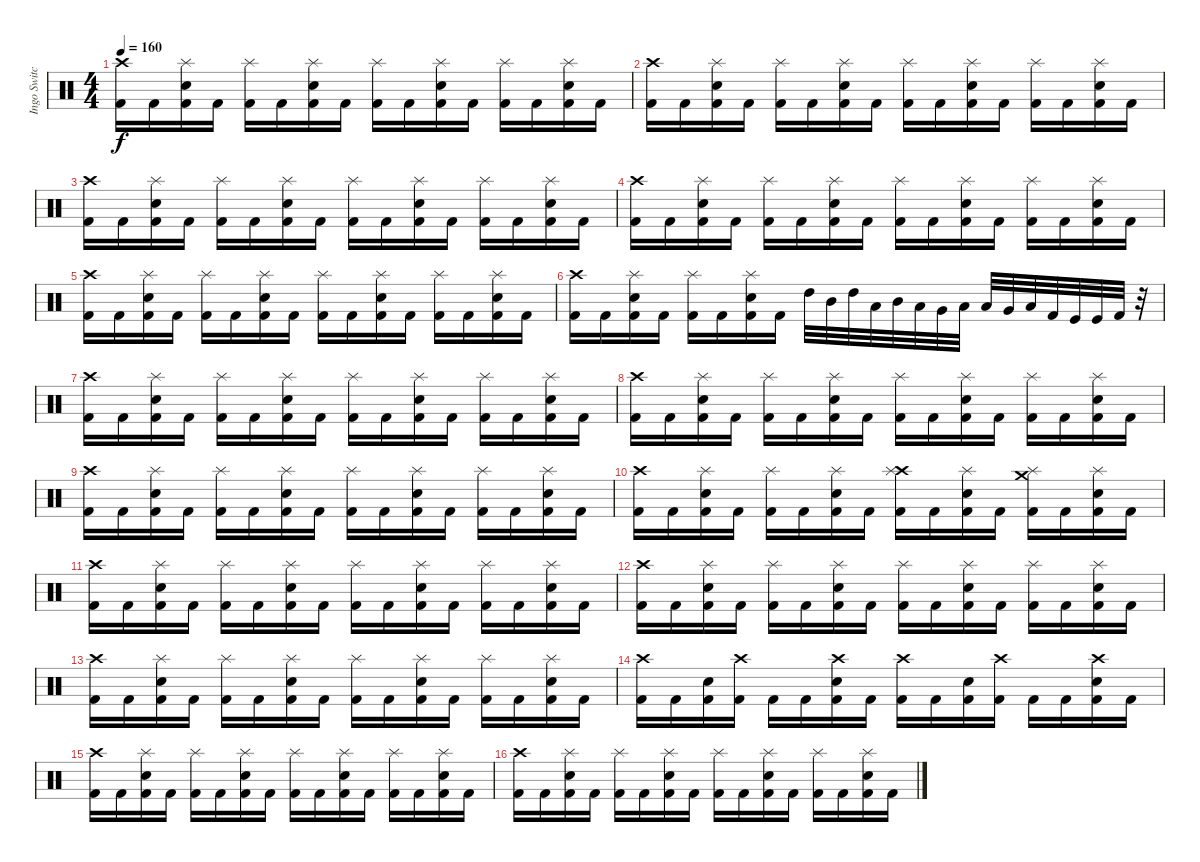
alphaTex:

\track ("Ingo Switchenberg" "Ingo Switc") {instrument percussion}
\staff {score}
\articulation defaults
\ts (4 4)
\tempo 160
\clef neutral
\ks c
("Crash high (hit)" "Kick (hit) 2").16{dy f} "Kick (hit) 2".16 ("Snare (hit) 2" "Kick (hit) 2" "Splash (hit)").16 "Kick (hit) 2".16 ("Kick (hit) 2" "Splash (hit)").16 "Kick (hit) 2".16 ("Snare (hit) 2" "Kick (hit) 2" "Splash (hit)").16 "Kick (hit) 2".16 ("Kick (hit) 2" "Splash (hit)").16 "Kick (hit) 2".16 ("Snare (hit) 2" "Kick (hit) 2" "Splash (hit)").16 "Kick (hit) 2".16 ("Kick (hit) 2" "Splash (hit)").16 "Kick (hit) 2".16 ("Snare (hit) 2" "Kick (hit) 2" "Splash (hit)").16 "Kick (hit) 2".16 |
("Crash high (hit)" "Kick (hit) 2").16 "Kick (hit) 2".16 ("Snare (hit) 2" "Kick (hit) 2" "Splash (hit)").16 "Kick (hit) 2".16 ("Kick (hit) 2" "Splash (hit)").16 "Kick (hit) 2".16 ("Snare (hit) 2" "Kick (hit) 2" "Splash (hit)").16 "Kick (hit) 2".16 ("Kick (hit) 2" "Splash (hit)").16 "Kick (hit) 2".16 ("Snare (hit) 2" "Kick (hit) 2" "Splash (hit)").16 "Kick (hit) 2".16 ("Kick (hit) 2" "Splash (hit)").16 "Kick (hit) 2".16 ("Snare (hit) 2" "Kick (hit) 2" "Splash (hit)").16 "Kick (hit) 2".16 |
("Crash high (hit)" "Kick (hit) 2").16 "Kick (hit) 2".16 ("Snare (hit) 2" "Kick (hit) 2" "Splash (hit)").16 "Kick (hit) 2".16 ("Kick (hit) 2" "Splash (hit)").16 "Kick (hit) 2".16 ("Snare (hit) 2" "Kick (hit) 2" "Splash (hit)").16 "Kick (hit) 2".16 ("Kick (hit) 2" "Splash (hit)").16 "Kick (hit) 2".16 ("Snare (hit) 2" "Kick (hit) 2" "Splash (hit)").16 "Kick (hit) 2".16 ("Kick (hit) 2" "Splash (hit)").16 "Kick (hit) 2".16 ("Snare (hit) 2" "Kick (hit) 2" "Splash (hit)").16 "Kick (hit) 2".16 |
("Crash high (hit)" "Kick (hit) 2").16 "Kick (hit) 2".16 ("Snare (hit) 2" "Kick (hit) 2" "Splash (hit)").16 "Kick (hit) 2".16 ("Kick (hit) 2" "Splash (hit)").16 "Kick (hit) 2".16 ("Snare (hit) 2" "Kick (hit) 2" "Splash (hit)").16 "Kick (hit) 2".16 ("Kick (hit) 2" "Splash (hit)").16 "Kick (hit) 2".16 ("Snare (hit) 2" "Kick (hit) 2" "Splash (hit)").16 "Kick (hit) 2".16 ("Kick (hit) 2" "Splash (hit)").16 "Kick (hit) 2".16 ("Snare (hit) 2" "Kick (hit) 2" "Splash (hit)").16 "Kick (hit) 2".16 |
("Crash high (hit)" "Kick (hit) 2").16 "Kick (hit) 2".16 ("Snare (hit) 2" "Kick (hit) 2" "Splash (hit)").16 "Kick (hit) 2".16 ("Kick (hit) 2" "Splash (hit)").16 "Kick (hit) 2".16 ("Snare (hit) 2" "Kick (hit) 2" "Splash (hit)").16 "Kick (hit) 2".16 ("Kick (hit) 2" "Splash (hit)").16 "Kick (hit) 2".16 ("Snare (hit) 2" "Kick (hit) 2" "Splash (hit)").16 "Kick (hit) 2".16 ("Kick (hit) 2" "Splash (hit)").16 "Kick (hit) 2".16 ("Snare (hit) 2" "Kick (hit) 2" "Splash (hit)").16 "Kick (hit) 2".16 |
("Kick (hit) 2" "Crash high (hit)").16 "Kick (hit) 2".16 ("Kick (hit) 2" "Snare (hit) 2" "Splash (hit)").16 "Kick (hit) 2".16 ("Kick (hit) 2" "Splash (hit)").16 "Kick (hit) 2".16 ("Kick (hit) 2" "Snare (hit) 2" "Splash (hit)").16 "Kick (hit) 2".16 "High Tom (hit)".32 "Mid Tom (hit)".32 "High Tom (hit)".32 "Low Tom (hit)".32 "Mid Tom (hit)".32 "Low Tom (hit)".32 "Very Low Tom (hit)".32 "Low Tom (hit)".32 "Low Floor Tom (hit)".32 "Very Low Tom (hit)".32 "Low Tom (hit)".32 "Kick (hit) 2".32 "Kick (hit)".32 "Kick (hit)".32 "Kick (hit) 2".32 r.32 |
("Crash high (hit)" "Kick (hit) 2").16 "Kick (hit) 2".16 ("Snare (hit) 2" "Kick (hit) 2" "Splash (hit)").16 "Kick (hit) 2".16 ("Kick (hit) 2" "Splash (hit)").16 "Kick (hit) 2".16 ("Snare (hit) 2" "Kick (hit) 2" "Splash (hit)").16 "Kick (hit) 2".16 ("Kick (hit) 2" "Splash (hit)").16 "Kick (hit) 2".16 ("Snare (hit) 2" "Kick (hit) 2" "Splash (hit)").16 "Kick (hit) 2".16 ("Kick (hit) 2" "Splash (hit)").16 "Kick (hit) 2".16 ("Snare (hit) 2" "Kick (hit) 2" "Splash (hit)").16 "Kick (hit) 2".16 |
("Crash high (hit)" "Kick (hit) 2").16 "Kick (hit) 2".16 ("Snare (hit) 2" "Kick (hit) 2" "Splash (hit)").16 "Kick (hit) 2".16 ("Kick (hit) 2" "Splash (hit)").16 "Kick (hit) 2".16 ("Snare (hit) 2" "Kick (hit) 2" "Splash (hit)").16 "Kick (hit) 2".16 ("Kick (hit) 2" "Splash (hit)").16 "Kick (hit) 2".16 ("Snare (hit) 2" "Kick (hit) 2" "Splash (hit)").16 "Kick (hit) 2".16 ("Kick (hit) 2" "Splash (hit)").16 "Kick (hit) 2".16 ("Snare (hit) 2" "Kick (hit) 2" "Splash (hit)").16 "Kick (hit) 2".16 |
("Crash high (hit)" "Kick (hit) 2").16 "Kick (hit) 2".16 ("Snare (hit) 2" "Kick (hit) 2" "Splash (hit)").16 "Kick (hit) 2".16 ("Kick (hit) 2" "Splash (hit)").16 "Kick (hit) 2".16 ("Snare (hit) 2" "Kick (hit) 2" "Splash (hit)").16 "Kick (hit) 2".16 ("Kick (hit) 2" "Splash (hit)").16 "Kick (hit) 2".16 ("Snare (hit) 2" "Kick (hit) 2" "Splash (hit)").16 "Kick (hit) 2".16 ("Kick (hit) 2" "Splash (hit)").16 "Kick (hit) 2".16 ("Snare (hit) 2" "Kick (hit) 2" "Splash (hit)").16 "Kick (hit) 2".16 |
("Crash high (hit)" "Kick (hit) 2").16 "Kick (hit) 2".16 ("Snare (hit) 2" "Kick (hit) 2" "Splash (hit)").16 "Kick (hit) 2".16 ("Kick (hit) 2" "Splash (hit)").16 "Kick (hit) 2".16 ("Snare (hit) 2" "Kick (hit) 2" "Splash (hit)").16 "Kick (hit) 2".16 ("Crash high (hit)" "Kick (hit) 2" "Splash (hit)").16 "Kick (hit) 2".16 ("Snare (hit) 2" "Kick (hit) 2" "Splash (hit)").16 "Kick (hit) 2".16 ("Crash medium (hit)" "Kick (hit) 2" "Splash (hit)").16 "Kick (hit) 2".16 ("Snare (hit) 2" "Kick (hit) 2" "Splash (hit)").16 "Kick (hit) 2".16 |
("Crash high (hit)" "Kick (hit) 2").16 "Kick (hit) 2".16 ("Snare (hit) 2" "Kick (hit) 2" "Splash (hit)").16 "Kick (hit) 2".16 ("Kick (hit) 2" "Splash (hit)").16 "Kick (hit) 2".16 ("Snare (hit) 2" "Kick (hit) 2" "Splash (hit)").16 "Kick (hit) 2".16 ("Kick (hit) 2" "Splash (hit)").16 "Kick (hit) 2".16 ("Snare (hit) 2" "Kick (hit) 2" "Splash (hit)").16 "Kick (hit) 2".16 ("Kick (hit) 2" "Splash (hit)").16 "Kick (hit) 2".16 ("Snare (hit) 2" "Kick (hit) 2" "Splash (hit)").16 "Kick (hit) 2".16 |
("Crash high (hit)" "Kick (hit) 2").16 "Kick (hit) 2".16 ("Snare (hit) 2" "Kick (hit) 2" "Splash (hit)").16 "Kick (hit) 2".16 ("Kick (hit) 2" "Splash (hit)").16 "Kick (hit) 2".16 ("Snare (hit) 2" "Kick (hit) 2" "Splash (hit)").16 "Kick (hit) 2".16 ("Kick (hit) 2" "Splash (hit)").16 "Kick (hit) 2".16 ("Snare (hit) 2" "Kick (hit) 2" "Splash (hit)").16 "Kick (hit) 2".16 ("Kick (hit) 2" "Splash (hit)").16 "Kick (hit) 2".16 ("Snare (hit) 2" "Kick (hit) 2" "Splash (hit)").16 "Kick (hit) 2".16 |
("Crash high (hit)" "Kick (hit) 2").16 "Kick (hit) 2".16 ("Snare (hit) 2" "Kick (hit) 2" "Splash (hit)").16 "Kick (hit) 2".16 ("Kick (hit) 2" "Splash (hit)").16 "Kick (hit) 2".16 ("Snare (hit) 2" "Kick (hit) 2" "Splash (hit)").16 "Kick (hit) 2".16 ("Kick (hit) 2" "Splash (hit)").16 "Kick (hit) 2".16 ("Snare (hit) 2" "Kick (hit) 2" "Splash (hit)").16 "Kick (hit) 2".16 ("Kick (hit) 2" "Splash (hit)").16 "Kick (hit) 2".16 ("Snare (hit) 2" "Kick (hit) 2" "Splash (hit)").16 "Kick (hit) 2".16 |
("Crash high (hit)" "Kick (hit) 2").16 "Kick (hit) 2".16 ("Snare (hit) 2" "Kick (hit) 2").16 ("Kick (hit) 2" "Crash high (hit)").16 "Kick (hit) 2".16 "Kick (hit) 2".16 ("Snare (hit) 2" "Kick (hit) 2" "Crash high (hit)").16 "Kick (hit) 2".16 ("Kick (hit) 2" "Crash high (hit)").16 "Kick (hit) 2".16 ("Snare (hit) 2" "Kick (hit) 2").16 ("Kick (hit) 2" "Crash high (hit)").16 "Kick (hit) 2".16 "Kick (hit) 2".16 ("Snare (hit) 2" "Kick (hit) 2" "Crash high (hit)").16 "Kick (hit) 2".16 |
("Crash high (hit)" "Kick (hit) 2").16 "Kick (hit) 2".16 ("Snare (hit) 2" "Kick (hit) 2" "Splash (hit)").16 "Kick (hit) 2".16 ("Kick (hit) 2" "Splash (hit)").16 "Kick (hit) 2".16 ("Snare (hit) 2" "Kick (hit) 2" "Splash (hit)").16 "Kick (hit) 2".16 ("Kick (hit) 2" "Splash (hit)").16 "Kick (hit) 2".16 ("Snare (hit) 2" "Kick (hit) 2" "Splash (hit)").16 "Kick (hit) 2".16 ("Kick (hit) 2" "Splash (hit)").16 "Kick (hit) 2".16 ("Snare (hit) 2" "Kick (hit) 2" "Splash (hit)").16 "Kick (hit) 2".16 |
("Crash high (hit)" "Kick (hit) 2").16 "Kick (hit) 2".16 ("Snare (hit) 2" "Kick (hit) 2" "Splash (hit)").16 "Kick (hit) 2".16 ("Kick (hit) 2" "Splash (hit)").16 "Kick (hit) 2".16 ("Snare (hit) 2" "Kick (hit) 2" "Splash (hit)").16 "Kick (hit) 2".16 ("Kick (hit) 2" "Splash (hit)").16 "Kick (hit) 2".16 ("Snare (hit) 2" "Kick (hit) 2" "Splash (hit)").16 "Kick (hit) 2".16 ("Kick (hit) 2" "Splash (hit)").16 "Kick (hit) 2".16 ("Snare (hit) 2" "Kick (hit) 2" "Splash (hit)").16 "Kick (hit) 2".16
